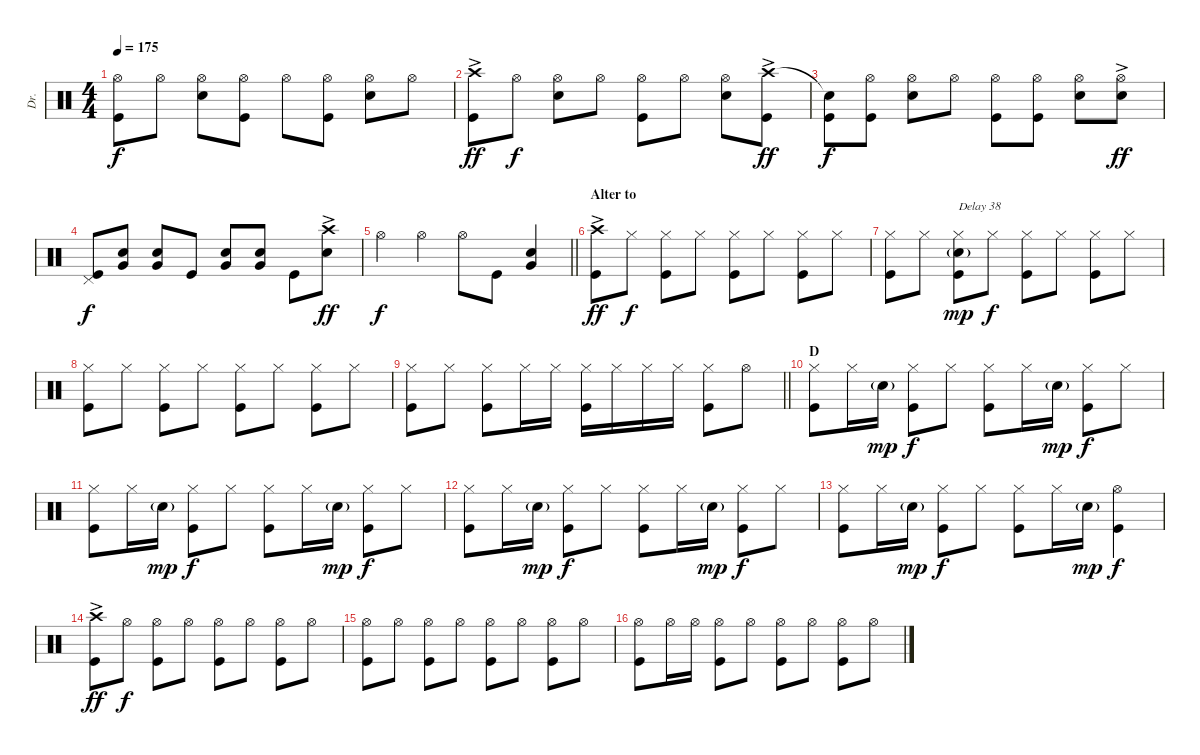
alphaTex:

\track ("Dr." "Dr.") {instrument percussion}
\staff {score}
\articulation defaults
\ts (4 4)
\tempo 175
\clef neutral
\ks c
("Hi-Hat (open)" "Kick (hit)").8{dy f} "Hi-Hat (open)".8 ("Hi-Hat (open)" "Snare (hit) 2").8 ("Hi-Hat (open)" "Kick (hit)").8 "Hi-Hat (open)".8 ("Hi-Hat (open)" "Kick (hit)").8 ("Hi-Hat (open)" "Snare (hit) 2").8 "Hi-Hat (open)".8 |
("Crash high (hit)"{ac} "Kick (hit)"{ac}).8{dy ff} "Hi-Hat (open)".8{dy f} ("Hi-Hat (open)" "Snare (hit) 2").8 "Hi-Hat (open)".8 ("Hi-Hat (open)" "Kick (hit)").8 "Hi-Hat (open)".8 ("Hi-Hat (open)" "Snare (hit) 2").8 ("Crash high (hit)"{ac} "Kick (hit)"{ac}).8{dy ff} |
("Snare (hit)"{t} "Kick (hit)").8{dy f} ("Hi-Hat (open)" "Kick (hit)").8 ("Hi-Hat (open)" "Snare (hit) 2").8 "Hi-Hat (open)".8 ("Hi-Hat (open)" "Kick (hit)").8 ("Hi-Hat (open)" "Kick (hit)").8 ("Hi-Hat (open)" "Snare (hit) 2").8 ("Hi-Hat (open)"{ac} "Snare (hit) 2"{ac}).8{dy ff} |
("Pedal Hi-Hat (hit)" "Kick (hit)").8{dy f} ("Very Low Tom (hit)" "Snare (hit) 2").8 ("Very Low Tom (hit)" "Snare (hit) 2").8 "Kick (hit)".8 ("Very Low Tom (hit)" "Snare (hit) 2").8 ("Very Low Tom (hit)" "Snare (hit) 2").8 "Kick (hit)".8 ("Crash high (hit)"{ac} "Snare (hit) 2"{ac}).8{dy ff} |
\barLineRight lightlight "Hi-Hat (open)".4{dy f} "Hi-Hat (open)".4 "Hi-Hat (open)".8 "Kick (hit)".8
("Very Low Tom (hit)" "Snare (hit) 2").4 |
\section ("" "Alter to")
("Crash high (hit)"{ac} "Kick (hit)"{ac}).8{dy ff} "Hi-Hat (closed)".8{dy f} ("Hi-Hat (closed)" "Kick (hit)").8 "Hi-Hat (closed)".8 ("Hi-Hat (closed)" "Kick (hit)").8 "Hi-Hat (closed)".8 ("Hi-Hat (closed)" "Kick (hit)").8 "Hi-Hat (closed)".8 |
("Hi-Hat (closed)" "Kick (hit)").8 "Hi-Hat (closed)".8 ("Hi-Hat (closed)" "Snare (hit) 2"{g} "Kick (hit)").8{txt "Delay 38" dy mp} "Hi-Hat (closed)".8{dy f} ("Hi-Hat (closed)" "Kick (hit)").8 "Hi-Hat (closed)".8 ("Hi-Hat (closed)" "Kick (hit)").8 "Hi-Hat (closed)".8 |
("Hi-Hat (closed)" "Kick (hit)").8 "Hi-Hat (closed)".8 ("Hi-Hat (closed)" "Kick (hit)").8 "Hi-Hat (closed)".8 ("Hi-Hat (closed)" "Kick (hit)").8 "Hi-Hat (closed)".8 ("Hi-Hat (closed)" "Kick (hit)").8 "Hi-Hat (closed)".8 |
\barLineRight lightlight
("Hi-Hat (closed)" "Kick (hit)").8 "Hi-Hat (closed)".8 ("Hi-Hat (closed)" "Kick (hit)").8 "Hi-Hat (closed)".16 "Hi-Hat (closed)".16 ("Hi-Hat (closed)" "Kick (hit)").16 "Hi-Hat (closed)".16 "Hi-Hat (closed)".16 "Hi-Hat (closed)".16 ("Hi-Hat (closed)" "Kick (hit)").8 "Hi-Hat (open)".8 |
\section ("" "D")
("Hi-Hat (closed)" "Kick (hit)").8 "Hi-Hat (closed)".16 "Snare (hit) 2"{g}.16{dy mp} ("Hi-Hat (closed)" "Kick (hit)").8{dy f} "Hi-Hat (closed)".8 ("Hi-Hat (closed)" "Kick (hit)").8 "Hi-Hat (closed)".16 "Snare (hit) 2"{g}.16{dy mp} ("Hi-Hat (closed)" "Kick (hit)").8{dy f} "Hi-Hat (closed)".8 |
("Hi-Hat (closed)" "Kick (hit)").8 "Hi-Hat (closed)".16 "Snare (hit) 2"{g}.16{dy mp} ("Hi-Hat (closed)" "Kick (hit)").8{dy f} "Hi-Hat (closed)".8 ("Hi-Hat (closed)" "Kick (hit)").8 "Hi-Hat (closed)".16 "Snare (hit) 2"{g}.16{dy mp} ("Hi-Hat (closed)" "Kick (hit)").8{dy f} "Hi-Hat (closed)".8 |
("Hi-Hat (closed)" "Kick (hit)").8 "Hi-Hat (closed)".16 "Snare (hit) 2"{g}.16{dy mp} ("Hi-Hat (closed)" "Kick (hit)").8{dy f} "Hi-Hat (closed)".8 ("Hi-Hat (closed)" "Kick (hit)").8 "Hi-Hat (closed)".16 "Snare (hit) 2"{g}.16{dy mp} ("Hi-Hat (closed)" "Kick (hit)").8{dy f} "Hi-Hat (closed)".8 |
("Hi-Hat (closed)" "Kick (hit)").8 "Hi-Hat (closed)".16 "Snare (hit) 2"{g}.16{dy mp} ("Hi-Hat (closed)" "Kick (hit)").8{dy f} "Hi-Hat (closed)".8 ("Hi-Hat (closed)" "Kick (hit)").8 "Hi-Hat (closed)".16 "Snare (hit) 2"{g}.16{dy mp} ("Hi-Hat (open)" "Kick (hit)").4{dy f} |
("Crash high (hit)"{ac} "Kick (hit)"{ac}).8{dy ff} "Hi-Hat (open)".8{dy f} ("Hi-Hat (open)" "Kick (hit)").8 "Hi-Hat (open)".8 ("Hi-Hat (open)" "Kick (hit)").8 "Hi-Hat (open)".8 ("Hi-Hat (open)" "Kick (hit)").8 "Hi-Hat (open)".8 |
("Hi-Hat (open)" "Kick (hit)").8 "Hi-Hat (open)".8 ("Hi-Hat (open)" "Kick (hit)").8 "Hi-Hat (open)".8 ("Hi-Hat (open)" "Kick (hit)").8 "Hi-Hat (open)".8 ("Hi-Hat (open)" "Kick (hit)").8 "Hi-Hat (open)".8 |
("Hi-Hat (open)" "Kick (hit)").8 "Hi-Hat (open)".16 "Hi-Hat (open)".16 ("Hi-Hat (open)" "Kick (hit)").8 "Hi-Hat (open)".8 ("Hi-Hat (open)" "Kick (hit)").8 "Hi-Hat (open)".8 ("Hi-Hat (open)" "Kick (hit)").8 "Hi-Hat (open)".8
